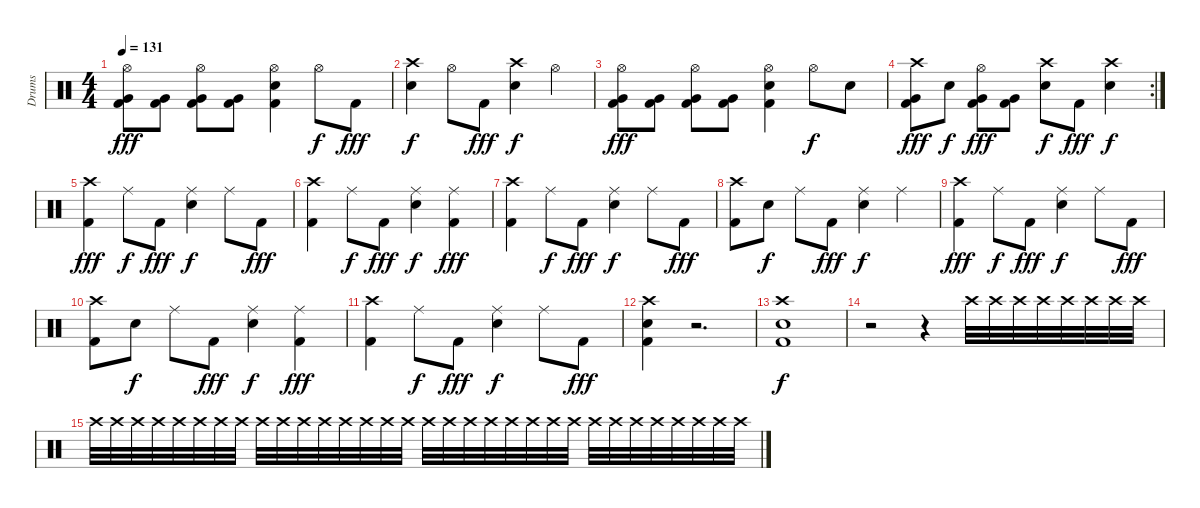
\track ("Drums" "Drums") {instrument percussion}
\staff {score}
\articulation defaults
\ts (4 4)
\tempo 131
\clef neutral
\ks c
("Hi-Hat (open)" "Very Low Tom (hit)" "Kick (hit) 2").8{dy fff} ("Very Low Tom (hit)" "Kick (hit) 2").8 ("Hi-Hat (open)" "Very Low Tom (hit)" "Kick (hit) 2").8 ("Very Low Tom (hit)" "Kick (hit) 2").8 ("Hi-Hat (open)" "Snare (hit) 2" "Kick (hit) 2").4 "Hi-Hat (open)".8{dy f} "Kick (hit) 2".8{dy fff} |
("Crash high (hit)" "Snare (hit) 2").4{dy f} "Hi-Hat (open)".8 "Kick (hit) 2".8{dy fff} ("Crash high (hit)" "Snare (hit) 2").4{dy f} "Hi-Hat (open)".4 |
("Hi-Hat (open)" "Very Low Tom (hit)" "Kick (hit) 2").8{dy fff} ("Very Low Tom (hit)" "Kick (hit) 2").8 ("Hi-Hat (open)" "Very Low Tom (hit)" "Kick (hit) 2").8 ("Very Low Tom (hit)" "Kick (hit) 2").8 ("Hi-Hat (open)" "Snare (hit) 2" "Kick (hit) 2").4 "Hi-Hat (open)".8{dy f} "Snare (hit) 2".8 |
\rc 2
("Crash high (hit)" "Very Low Tom (hit)" "Kick (hit) 2").8{dy fff} "Snare (hit) 2".8{dy f} ("Hi-Hat (open)" "Very Low Tom (hit)" "Kick (hit) 2").8{dy fff} ("Very Low Tom (hit)" "Kick (hit) 2").8 ("Crash high (hit)" "Snare (hit) 2").8{dy f} "Kick (hit) 2".8{dy fff} ("Crash high (hit)" "Snare (hit) 2").4{dy f} |
("Crash high (hit)" "Kick (hit) 2").4{dy fff} "Ride (middle)".8{dy f} "Kick (hit) 2".8{dy fff} ("Ride (middle)" "Snare (hit) 2").4{dy f} "Ride (middle)".8 "Kick (hit) 2".8{dy fff} |
("Crash high (hit)" "Kick (hit) 2").4 "Ride (middle)".8{dy f} "Kick (hit) 2".8{dy fff} ("Ride (middle)" "Snare (hit) 2").4{dy f} ("Ride (middle)" "Kick (hit) 2").4{dy fff} |
("Crash high (hit)" "Kick (hit) 2").4 "Ride (middle)".8{dy f} "Kick (hit) 2".8{dy fff} ("Ride (middle)" "Snare (hit) 2").4{dy f} "Ride (middle)".8 "Kick (hit) 2".8{dy fff} |
("Crash high (hit)" "Kick (hit) 2").8 "Snare (hit) 2".8{dy f} "Ride (middle)".8 "Kick (hit) 2".8{dy fff} ("Ride (middle)" "Snare (hit) 2").4{dy f} "Ride (middle)".4 |
("Crash high (hit)" "Kick (hit) 2").4{dy fff} "Ride (middle)".8{dy f} "Kick (hit) 2".8{dy fff} ("Ride (middle)" "Snare (hit) 2").4{dy f} "Ride (middle)".8 "Kick (hit) 2".8{dy fff} |
("Crash high (hit)" "Kick (hit) 2").8 "Snare (hit) 2".8{dy f} "Ride (middle)".8 "Kick (hit) 2".8{dy fff} ("Ride (middle)" "Snare (hit) 2").4{dy f} ("Ride (middle)" "Kick (hit) 2").4{dy fff} |
("Crash high (hit)" "Kick (hit) 2").4 "Ride (middle)".8{dy f} "Kick (hit) 2".8{dy fff} ("Ride (middle)" "Snare (hit) 2").4{dy f} "Ride (middle)".8 "Kick (hit) 2".8{dy fff} |
("Crash high (hit)" "Snare (hit) 2" "Kick (hit) 2").4 r.2{d} |
("Crash high (hit)" "Snare (hit) 2" "Kick (hit) 2").1{dy f} |
r.2 r.4 "Crash high (hit)".32{volume 8} "Crash high (hit)".32{volume 14} "Crash high (hit)".32 "Crash high (hit)".32 "Crash high (hit)".32 "Crash high (hit)".32 "Crash high (hit)".32 "Crash high (hit)".32 |
"Crash high (hit)".32 "Crash high (hit)".32 "Crash high (hit)".32 "Crash high (hit)".32 "Crash high (hit)".32 "Crash high (hit)".32 "Crash high (hit)".32 "Crash high (hit)".32 "Crash high (hit)".32 "Crash high (hit)".32 "Crash high (hit)".32 "Crash high (hit)".32 "Crash high (hit)".32 "Crash high (hit)".32 "Crash high (hit)".32 "Crash high (hit)".32 "Crash high (hit)".32 "Crash high (hit)".32 "Crash high (hit)".32 "Crash high (hit)".32 "Crash high (hit)".32 "Crash high (hit)".32 "Crash high (hit)".32 "Crash high (hit)".32 "Crash high (hit)".32 "Crash high (hit)".32 "Crash high (hit)".32 "Crash high (hit)".32 "Crash high (hit)".32 "Crash high (hit)".32 "Crash high (hit)".32 "Crash high (hit)".32
